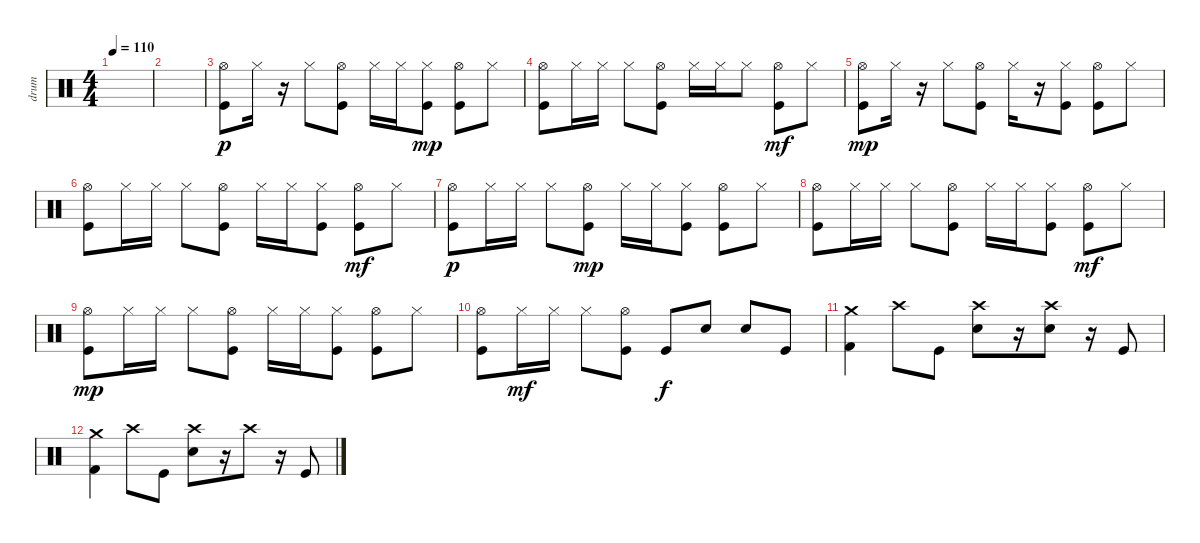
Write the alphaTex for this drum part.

\track ("drum" "drum") {instrument percussion}
\staff {score}
\articulation defaults
\ts (4 4)
\tempo 110
\clef neutral
\ks c
|
|
("Hi-Hat (open)" "Kick (hit)").8{dy p} "Hi-Hat (closed)".16 r.16 "Hi-Hat (closed)".8 ("Hi-Hat (open)" "Kick (hit)").8 "Hi-Hat (closed)".16 "Hi-Hat (closed)".16 ("Hi-Hat (closed)" "Kick (hit)").8{dy mp} ("Hi-Hat (open)" "Kick (hit)").8 "Hi-Hat (closed)".8 |
("Hi-Hat (open)" "Kick (hit)").8 "Hi-Hat (closed)".16 "Hi-Hat (closed)".16 "Hi-Hat (closed)".8 ("Hi-Hat (open)" "Kick (hit)").8 "Hi-Hat (closed)".16 "Hi-Hat (closed)".16 "Hi-Hat (closed)".8 ("Hi-Hat (open)" "Kick (hit)").8{dy mf} "Hi-Hat (closed)".8 |
("Hi-Hat (open)" "Kick (hit)").8{dy mp} "Hi-Hat (closed)".16 r.16 "Hi-Hat (closed)".8 ("Hi-Hat (open)" "Kick (hit)").8 "Hi-Hat (closed)".16 r.16 ("Hi-Hat (closed)" "Kick (hit)").8 ("Hi-Hat (open)" "Kick (hit)").8 "Hi-Hat (closed)".8 |
("Hi-Hat (open)" "Kick (hit)").8 "Hi-Hat (closed)".16 "Hi-Hat (closed)".16 "Hi-Hat (closed)".8 ("Hi-Hat (open)" "Kick (hit)").8 "Hi-Hat (closed)".16 "Hi-Hat (closed)".16 ("Hi-Hat (closed)" "Kick (hit)").8 ("Hi-Hat (open)" "Kick (hit)").8{dy mf} "Hi-Hat (closed)".8 |
("Hi-Hat (open)" "Kick (hit)").8{dy p} "Hi-Hat (closed)".16 "Hi-Hat (closed)".16 "Hi-Hat (closed)".8 ("Hi-Hat (open)" "Kick (hit)").8{dy mp} "Hi-Hat (closed)".16 "Hi-Hat (closed)".16 ("Hi-Hat (closed)" "Kick (hit)").8 ("Hi-Hat (open)" "Kick (hit)").8 "Hi-Hat (closed)".8 |
("Hi-Hat (open)" "Kick (hit)").8 "Hi-Hat (closed)".16 "Hi-Hat (closed)".16 "Hi-Hat (closed)".8 ("Hi-Hat (open)" "Kick (hit)").8 "Hi-Hat (closed)".16 "Hi-Hat (closed)".16 ("Hi-Hat (closed)" "Kick (hit)").8 ("Hi-Hat (open)" "Kick (hit)").8{dy mf} "Hi-Hat (closed)".8 |
("Hi-Hat (open)" "Kick (hit)").8{dy mp} "Hi-Hat (closed)".16 "Hi-Hat (closed)".16 "Hi-Hat (closed)".8 ("Hi-Hat (open)" "Kick (hit)").8 "Hi-Hat (closed)".16 "Hi-Hat (closed)".16 ("Hi-Hat (closed)" "Kick (hit)").8 ("Hi-Hat (open)" "Kick (hit)").8 "Hi-Hat (closed)".8 |
("Hi-Hat (open)" "Kick (hit)").8 "Hi-Hat (closed)".16{dy mf} "Hi-Hat (closed)".16 "Hi-Hat (closed)".8 ("Hi-Hat (open)" "Kick (hit)").8 "Kick (hit)".8{dy f} "Electric Snare (hit)".8 "Electric Snare (hit)".8 "Kick (hit)".8 |
("Crash medium (hit)" "Kick (hit) 2").4 "Crash high (hit)".8 "Kick (hit)".8 ("Crash high (hit)" "Electric Snare (hit)").8 r.16 ("Crash high (hit)" "Electric Snare (hit)").8 r.16 "Kick (hit)".8 |
("Crash medium (hit)" "Kick (hit) 2").4 "Crash high (hit)".8 "Kick (hit)".8 ("Crash high (hit)" "Electric Snare (hit)").8 r.16 "Crash high (hit)".8 r.16 "Kick (hit)".8
